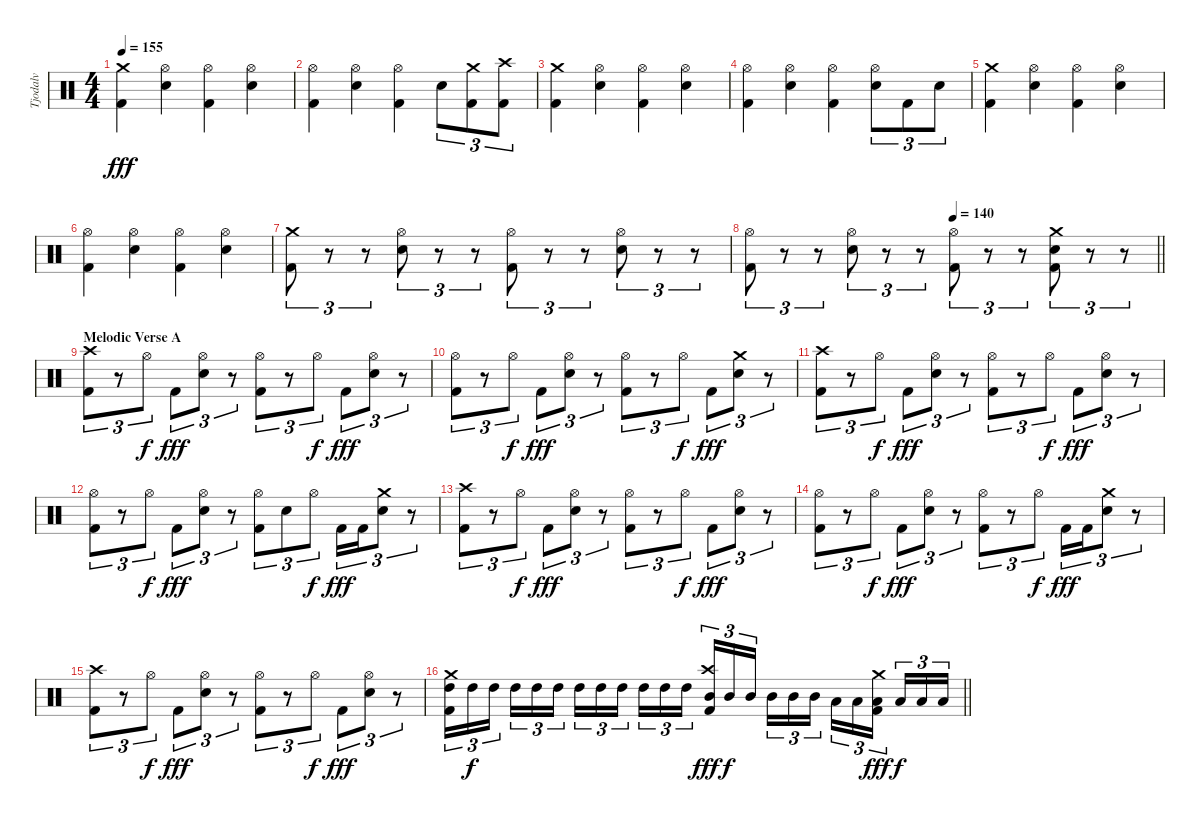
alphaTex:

\track ("Tjodalv" "Tjodalv") {instrument percussion}
\staff {score}
\articulation defaults
\ts (4 4)
\tempo 155
\clef neutral
\ks c
("Crash medium (hit)" "Kick (hit) 2").4{dy fff} ("Hi-Hat (open)" "Snare (hit) 2").4 ("Hi-Hat (open)" "Kick (hit) 2").4 ("Hi-Hat (open)" "Snare (hit) 2").4 |
("Hi-Hat (open)" "Kick (hit) 2").4 ("Hi-Hat (open)" "Snare (hit) 2").4 ("Hi-Hat (open)" "Kick (hit) 2").4 "Snare (hit) 2".8{tu (3 2)} ("Crash medium (hit)" "Kick (hit) 2").8{tu (3 2)} ("Crash high (hit)" "Kick (hit) 2").8{tu (3 2)} |
("Crash medium (hit)" "Kick (hit) 2").4 ("Hi-Hat (open)" "Snare (hit) 2").4 ("Hi-Hat (open)" "Kick (hit) 2").4 ("Hi-Hat (open)" "Snare (hit) 2").4 |
("Hi-Hat (open)" "Kick (hit) 2").4 ("Hi-Hat (open)" "Snare (hit) 2").4 ("Hi-Hat (open)" "Kick (hit) 2").4 ("Hi-Hat (open)" "Snare (hit) 2").8{tu (3 2)} "Kick (hit) 2".8{tu (3 2)} "Snare (hit) 2".8{tu (3 2)} |
("Crash medium (hit)" "Kick (hit) 2").4 ("Hi-Hat (open)" "Snare (hit) 2").4 ("Hi-Hat (open)" "Kick (hit) 2").4 ("Hi-Hat (open)" "Snare (hit) 2").4 |
("Hi-Hat (open)" "Kick (hit) 2").4 ("Hi-Hat (open)" "Snare (hit) 2").4 ("Hi-Hat (open)" "Kick (hit) 2").4 ("Hi-Hat (open)" "Snare (hit) 2").4 |
("Crash medium (hit)" "Kick (hit) 2").8{tu (3 2)} r.8{tu (3 2)} r.8{tu (3 2)} ("Hi-Hat (open)" "Snare (hit) 2").8{tu (3 2)} r.8{tu (3 2)} r.8{tu (3 2)} ("Hi-Hat (open)" "Kick (hit) 2").8{tu (3 2)} r.8{tu (3 2)} r.8{tu (3 2)} ("Hi-Hat (open)" "Snare (hit) 2").8{tu (3 2)} r.8{tu (3 2)} r.8{tu (3 2)} |
\tempo (140 0.5)
\barLineRight lightlight
("Hi-Hat (open)" "Kick (hit) 2").8{tu (3 2)} r.8{tu (3 2)} r.8{tu (3 2)} ("Hi-Hat (open)" "Snare (hit) 2").8{tu (3 2)} r.8{tu (3 2)} r.8{tu (3 2)} ("Hi-Hat (open)" "Kick (hit) 2").8{tu (3 2)} r.8{tu (3 2)} r.8{tu (3 2)} ("Crash medium (hit)" "Snare (hit) 2" "Kick (hit) 2").8{tu (3 2)} r.8{tu (3 2)} r.8{tu (3 2)} |
\section ("" "Melodic Verse A")
("Crash high (hit)" "Kick (hit) 2").8{tu (3 2)} r.8{tu (3 2)} "Hi-Hat (open)".8{tu (3 2) dy f} "Kick (hit) 2".8{tu (3 2) dy fff} ("Hi-Hat (open)" "Snare (hit) 2").8{tu (3 2)} r.8{tu (3 2)} ("Hi-Hat (open)" "Kick (hit) 2").8{tu (3 2)} r.8{tu (3 2)} "Hi-Hat (open)".8{tu (3 2) dy f} "Kick (hit) 2".8{tu (3 2) dy fff} ("Hi-Hat (open)" "Snare (hit) 2").8{tu (3 2)} r.8{tu (3 2)} |
("Hi-Hat (open)" "Kick (hit) 2").8{tu (3 2)} r.8{tu (3 2)} "Hi-Hat (open)".8{tu (3 2) dy f} "Kick (hit) 2".8{tu (3 2) dy fff} ("Hi-Hat (open)" "Snare (hit) 2").8{tu (3 2)} r.8{tu (3 2)} ("Hi-Hat (open)" "Kick (hit) 2").8{tu (3 2)} r.8{tu (3 2)} "Hi-Hat (open)".8{tu (3 2) dy f} "Kick (hit) 2".8{tu (3 2) dy fff} ("Crash medium (hit)" "Snare (hit) 2").8{tu (3 2)} r.8{tu (3 2)} |
("Crash high (hit)" "Kick (hit) 2").8{tu (3 2)} r.8{tu (3 2)} "Hi-Hat (open)".8{tu (3 2) dy f} "Kick (hit) 2".8{tu (3 2) dy fff} ("Hi-Hat (open)" "Snare (hit) 2").8{tu (3 2)} r.8{tu (3 2)} ("Hi-Hat (open)" "Kick (hit) 2").8{tu (3 2)} r.8{tu (3 2)} "Hi-Hat (open)".8{tu (3 2) dy f} "Kick (hit) 2".8{tu (3 2) dy fff} ("Hi-Hat (open)" "Snare (hit) 2").8{tu (3 2)} r.8{tu (3 2)} |
("Hi-Hat (open)" "Kick (hit) 2").8{tu (3 2)} r.8{tu (3 2)} "Hi-Hat (open)".8{tu (3 2) dy f} "Kick (hit) 2".8{tu (3 2) dy fff} ("Hi-Hat (open)" "Snare (hit) 2").8{tu (3 2)} r.8{tu (3 2)} ("Hi-Hat (open)" "Kick (hit) 2").8{tu (3 2)} "Snare (hit) 2".8{tu (3 2)} "Hi-Hat (open)".8{tu (3 2) dy f} "Kick (hit) 2".16{tu (3 2) dy fff} "Kick (hit) 2".16{tu (3 2)} ("Crash medium (hit)" "Snare (hit) 2").8{tu (3 2)} r.8{tu (3 2)} |
("Crash high (hit)" "Kick (hit) 2").8{tu (3 2)} r.8{tu (3 2)} "Hi-Hat (open)".8{tu (3 2) dy f} "Kick (hit) 2".8{tu (3 2) dy fff} ("Hi-Hat (open)" "Snare (hit) 2").8{tu (3 2)} r.8{tu (3 2)} ("Hi-Hat (open)" "Kick (hit) 2").8{tu (3 2)} r.8{tu (3 2)} "Hi-Hat (open)".8{tu (3 2) dy f} "Kick (hit) 2".8{tu (3 2) dy fff} ("Hi-Hat (open)" "Snare (hit) 2").8{tu (3 2)} r.8{tu (3 2)} |
("Hi-Hat (open)" "Kick (hit) 2").8{tu (3 2)} r.8{tu (3 2)} "Hi-Hat (open)".8{tu (3 2) dy f} "Kick (hit) 2".8{tu (3 2) dy fff} ("Hi-Hat (open)" "Snare (hit) 2").8{tu (3 2)} r.8{tu (3 2)} ("Hi-Hat (open)" "Kick (hit) 2").8{tu (3 2)} r.8{tu (3 2)} "Hi-Hat (open)".8{tu (3 2) dy f} "Kick (hit) 2".16{tu (3 2) dy fff} "Kick (hit) 2".16{tu (3 2)} ("Crash medium (hit)" "Snare (hit) 2").8{tu (3 2)} r.8{tu (3 2)} |
("Crash high (hit)" "Kick (hit) 2").8{tu (3 2)} r.8{tu (3 2)} "Hi-Hat (open)".8{tu (3 2) dy f} "Kick (hit) 2".8{tu (3 2) dy fff} ("Hi-Hat (open)" "Snare (hit) 2").8{tu (3 2)} r.8{tu (3 2)} ("Hi-Hat (open)" "Kick (hit) 2").8{tu (3 2)} r.8{tu (3 2)} "Hi-Hat (open)".8{tu (3 2) dy f} "Kick (hit) 2".8{tu (3 2) dy fff} ("Hi-Hat (open)" "Snare (hit) 2").8{tu (3 2)} r.8{tu (3 2)} |
\barLineRight lightlight
("Crash medium (hit)" "High Tom (hit)" "Kick (hit) 2").16{tu (3 2)} "High Tom (hit)".16{tu (3 2) dy f} "High Tom (hit)".16{tu (3 2) beam splitsecondary} "High Tom (hit)".16{tu (3 2)} "High Tom (hit)".16{tu (3 2)} "High Tom (hit)".16{tu (3 2)} "High Tom (hit)".16{tu (3 2)} "High Tom (hit)".16{tu (3 2)} "High Tom (hit)".16{tu (3 2) beam splitsecondary} "High Tom (hit)".16{tu (3 2)} "High Tom (hit)".16{tu (3 2)} "High Tom (hit)".16{tu (3 2)} ("Crash high (hit)" "Mid Tom (hit)" "Kick (hit) 2").16{tu (3 2) dy fff} "Mid Tom (hit)".16{tu (3 2) dy f} "Mid Tom (hit)".16{tu (3 2) beam splitsecondary} "Mid Tom (hit)".16{tu (3 2)} "Mid Tom (hit)".16{tu (3 2)} "Mid Tom (hit)".16{tu (3 2)} "Low Tom (hit)".16{tu (3 2)} "Low Tom (hit)".16{tu (3 2)} ("Crash medium (hit)" "Low Tom (hit)" "Kick (hit) 2").16{tu (3 2) dy fff beam splitsecondary} "Low Tom (hit)".16{tu (3 2) dy f} "Low Tom (hit)".16{tu (3 2)} "Low Tom (hit)".16{tu (3 2)}
